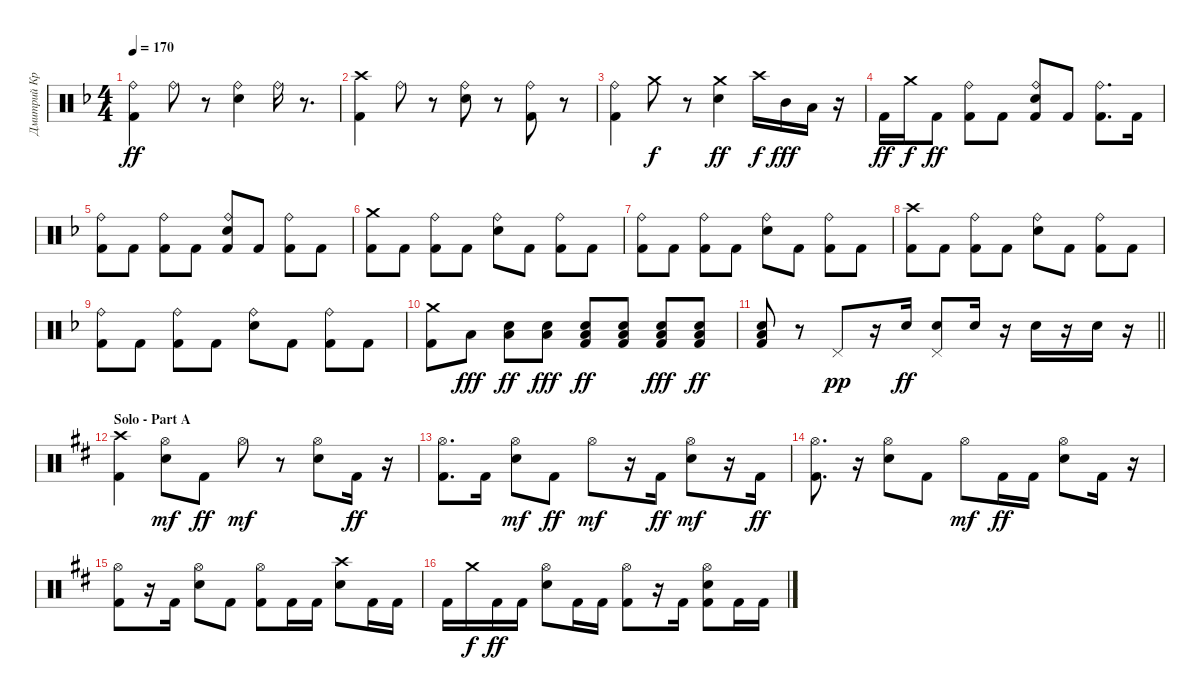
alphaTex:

\track ("Дмитрий Кривенков" "Дмитрий Кр") {instrument percussion}
\staff {score}
\articulation defaults
\ts (4 4)
\tempo 170
\clef neutral
\ks f
("Kick (hit) 2" "Ride (bell)").4{dy ff} "Ride (bell)".8 r.8 ("Ride (bell)" "Electric Snare (hit)").4 "Ride (bell)".16 r.8{d} |
("Crash high (hit)" "Kick (hit) 2").4 "Ride (bell)".8 r.8 ("Ride (bell)" "Electric Snare (hit)").8 r.8 ("Ride (bell)" "Kick (hit) 2").8 r.8 |
("Kick (hit) 2" "Ride (bell)").4 "Crash medium (hit)".8{dy f} r.8 ("Crash medium (hit)" "Electric Snare (hit)").4{dy ff} "Crash high (hit)".16{dy f} "Mid Tom (hit)".16{dy fff} "Low Tom (hit)".16 r.16 |
"Kick (hit) 2".16{dy ff} "Crash medium (hit)".16{dy f} "Kick (hit) 2".8{dy ff} ("Kick (hit) 2" "Ride (bell)").8 "Kick (hit) 2".8 ("Kick (hit) 2" "Electric Snare (hit)" "Ride (bell)").8 "Kick (hit) 2".8 ("Kick (hit) 2" "Ride (bell)").8{d} "Kick (hit) 2".16 |
("Ride (bell)" "Kick (hit) 2").8 "Kick (hit) 2".8 ("Ride (bell)" "Kick (hit) 2").8 "Kick (hit) 2".8 ("Ride (bell)" "Electric Snare (hit)" "Kick (hit) 2").8 "Kick (hit) 2".8 ("Kick (hit) 2" "Ride (bell)").8 "Kick (hit) 2".8 |
("Crash medium (hit)" "Kick (hit) 2").8 "Kick (hit) 2".8 ("Kick (hit) 2" "Ride (bell)").8 "Kick (hit) 2".8 ("Ride (bell)" "Electric Snare (hit)").8 "Kick (hit) 2".8 ("Ride (bell)" "Kick (hit) 2").8 "Kick (hit) 2".8 |
("Ride (bell)" "Kick (hit) 2").8 "Kick (hit) 2".8 ("Ride (bell)" "Kick (hit) 2").8 "Kick (hit) 2".8 ("Ride (bell)" "Electric Snare (hit)").8 "Kick (hit) 2".8 ("Ride (bell)" "Kick (hit) 2").8 "Kick (hit) 2".8 |
("Crash high (hit)" "Kick (hit) 2").8 "Kick (hit) 2".8 ("Ride (bell)" "Kick (hit) 2").8 "Kick (hit) 2".8 ("Ride (bell)" "Electric Snare (hit)").8 "Kick (hit) 2".8 ("Ride (bell)" "Kick (hit) 2").8 "Kick (hit) 2".8 |
("Ride (bell)" "Kick (hit) 2").8 "Kick (hit) 2".8 ("Ride (bell)" "Kick (hit) 2").8 "Kick (hit) 2".8 ("Ride (bell)" "Electric Snare (hit)").8 "Kick (hit) 2".8 ("Ride (bell)" "Kick (hit) 2").8 "Kick (hit) 2".8 |
("Crash medium (hit)" "Kick (hit) 2").8 "Low Floor Tom (hit)".8{dy fff} ("Low Floor Tom (hit)" "Electric Snare (hit)").8{dy ff} ("Electric Snare (hit)" "Low Floor Tom (hit)").8{dy fff} ("Electric Snare (hit)" "Low Floor Tom (hit)" "Kick (hit) 2").8{dy ff} ("Low Floor Tom (hit)" "Electric Snare (hit)" "Kick (hit) 2").8 ("Electric Snare (hit)" "Kick (hit) 2" "Low Floor Tom (hit)").8{dy fff} ("Kick (hit) 2" "Low Floor Tom (hit)" "Electric Snare (hit)").8{dy ff} |
\barLineRight lightlight
("Low Floor Tom (hit)" "Electric Snare (hit)" "Kick (hit) 2").8 r.8 "Pedal Hi-Hat (hit)".8{dy pp} r.16 "Electric Snare (hit)".16{dy ff} ("Pedal Hi-Hat (hit)" "Electric Snare (hit)").8 "Electric Snare (hit)".16 r.16 "Electric Snare (hit)".16 r.16 "Electric Snare (hit)".16 r.16 |
\section ("" "Solo - Part A")
\ks d
("Crash high (hit)" "Kick (hit) 2").4 ("Electric Snare (hit)" "Hi-Hat (open)").8{dy mf} "Kick (hit) 2".8{dy ff} "Hi-Hat (open)".8{dy mf} r.8 ("Electric Snare (hit)" "Hi-Hat (open)").8 "Kick (hit) 2".16{dy ff} r.16 |
("Hi-Hat (open)" "Kick (hit) 2").8{d} "Kick (hit) 2".16 ("Electric Snare (hit)" "Hi-Hat (open)").8{dy mf} "Kick (hit) 2".8{dy ff} "Hi-Hat (open)".8{dy mf} r.16 "Kick (hit) 2".16{dy ff} ("Electric Snare (hit)" "Hi-Hat (open)").8{dy mf} r.16 "Kick (hit) 2".16{dy ff} |
("Hi-Hat (open)" "Kick (hit) 2").8{d} r.16 ("Hi-Hat (open)" "Electric Snare (hit)").8 "Kick (hit) 2".8 "Hi-Hat (open)".8{dy mf} "Kick (hit) 2".16{dy ff} "Kick (hit) 2".16 ("Hi-Hat (open)" "Electric Snare (hit)").8 "Kick (hit) 2".16 r.16 |
("Hi-Hat (open)" "Kick (hit) 2").8 r.16 "Kick (hit) 2".16 ("Hi-Hat (open)" "Electric Snare (hit)").8 "Kick (hit) 2".8 ("Hi-Hat (open)" "Kick (hit) 2").8 "Kick (hit) 2".16 "Kick (hit) 2".16 ("Crash high (hit)" "Electric Snare (hit)").8 "Kick (hit) 2".16 "Kick (hit) 2".16 |
"Kick (hit) 2".16 "Crash medium (hit)".16{dy f} "Kick (hit) 2".16{dy ff} "Kick (hit) 2".16 ("Hi-Hat (open)" "Electric Snare (hit)").8 "Kick (hit) 2".16 "Kick (hit) 2".16 ("Hi-Hat (open)" "Kick (hit) 2").8 r.16 "Kick (hit) 2".16 ("Kick (hit) 2" "Hi-Hat (open)" "Electric Snare (hit)").8 "Kick (hit) 2".16 "Kick (hit) 2".16
